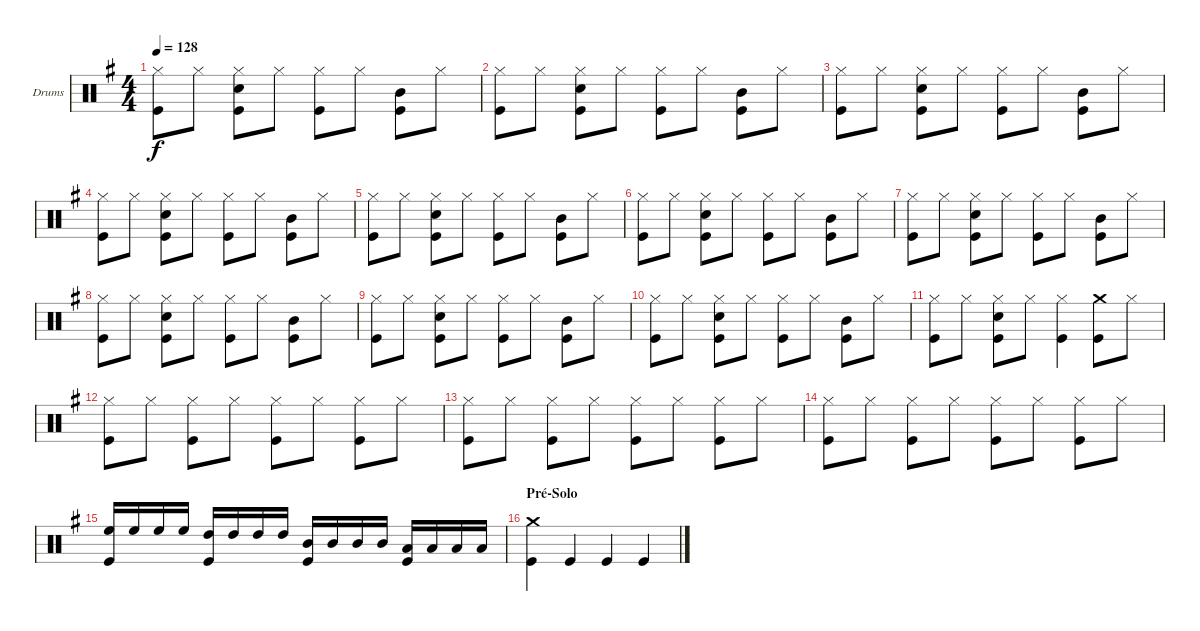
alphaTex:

\bracketExtendMode groupsimilarinstruments
\firstSystemTrackNameOrientation horizontal
\otherSystemsTrackNameOrientation horizontal
\track ("Drumkit" "Drums") {multiBarRest instrument percussion}
\staff {score}
\articulation defaults
\ts (4 4)
\tempo 128
\clef neutral
\ks eminor
("Hi-Hat (closed)" "Kick (hit)").8{dy f} "Hi-Hat (closed)".8 ("Hi-Hat (closed)" "Snare (hit) 2" "Kick (hit)").8 "Hi-Hat (closed)".8 ("Hi-Hat (closed)" "Kick (hit)").8 "Hi-Hat (closed)".8 ("Mid Tom (hit)" "Kick (hit)").8 "Hi-Hat (closed)".8 |
("Hi-Hat (closed)" "Kick (hit)").8 "Hi-Hat (closed)".8 ("Hi-Hat (closed)" "Snare (hit) 2" "Kick (hit)").8 "Hi-Hat (closed)".8 ("Hi-Hat (closed)" "Kick (hit)").8 "Hi-Hat (closed)".8 ("Mid Tom (hit)" "Kick (hit)").8 "Hi-Hat (closed)".8 |
("Hi-Hat (closed)" "Kick (hit)").8 "Hi-Hat (closed)".8 ("Hi-Hat (closed)" "Snare (hit) 2" "Kick (hit)").8 "Hi-Hat (closed)".8 ("Hi-Hat (closed)" "Kick (hit)").8 "Hi-Hat (closed)".8 ("Mid Tom (hit)" "Kick (hit)").8 "Hi-Hat (closed)".8 |
("Hi-Hat (closed)" "Kick (hit)").8 "Hi-Hat (closed)".8 ("Hi-Hat (closed)" "Snare (hit) 2" "Kick (hit)").8 "Hi-Hat (closed)".8 ("Hi-Hat (closed)" "Kick (hit)").8 "Hi-Hat (closed)".8 ("Mid Tom (hit)" "Kick (hit)").8 "Hi-Hat (closed)".8 |
("Hi-Hat (closed)" "Kick (hit)").8 "Hi-Hat (closed)".8 ("Hi-Hat (closed)" "Snare (hit) 2" "Kick (hit)").8 "Hi-Hat (closed)".8 ("Hi-Hat (closed)" "Kick (hit)").8 "Hi-Hat (closed)".8 ("Mid Tom (hit)" "Kick (hit)").8 "Hi-Hat (closed)".8 |
("Hi-Hat (closed)" "Kick (hit)").8 "Hi-Hat (closed)".8 ("Hi-Hat (closed)" "Snare (hit) 2" "Kick (hit)").8 "Hi-Hat (closed)".8 ("Hi-Hat (closed)" "Kick (hit)").8 "Hi-Hat (closed)".8 ("Mid Tom (hit)" "Kick (hit)").8 "Hi-Hat (closed)".8 |
("Hi-Hat (closed)" "Kick (hit)").8 "Hi-Hat (closed)".8 ("Hi-Hat (closed)" "Snare (hit) 2" "Kick (hit)").8 "Hi-Hat (closed)".8 ("Hi-Hat (closed)" "Kick (hit)").8 "Hi-Hat (closed)".8 ("Mid Tom (hit)" "Kick (hit)").8 "Hi-Hat (closed)".8 |
("Hi-Hat (closed)" "Kick (hit)").8 "Hi-Hat (closed)".8 ("Hi-Hat (closed)" "Snare (hit) 2" "Kick (hit)").8 "Hi-Hat (closed)".8 ("Hi-Hat (closed)" "Kick (hit)").8 "Hi-Hat (closed)".8 ("Mid Tom (hit)" "Kick (hit)").8 "Hi-Hat (closed)".8 |
("Hi-Hat (closed)" "Kick (hit)").8 "Hi-Hat (closed)".8 ("Hi-Hat (closed)" "Snare (hit) 2" "Kick (hit)").8 "Hi-Hat (closed)".8 ("Hi-Hat (closed)" "Kick (hit)").8 "Hi-Hat (closed)".8 ("Mid Tom (hit)" "Kick (hit)").8 "Hi-Hat (closed)".8 |
("Hi-Hat (closed)" "Kick (hit)").8 "Hi-Hat (closed)".8 ("Hi-Hat (closed)" "Snare (hit) 2" "Kick (hit)").8 "Hi-Hat (closed)".8 ("Hi-Hat (closed)" "Kick (hit)").8 "Hi-Hat (closed)".8 ("Mid Tom (hit)" "Kick (hit)").8 "Hi-Hat (closed)".8 |
("Hi-Hat (closed)" "Kick (hit)").8 "Hi-Hat (closed)".8 ("Hi-Hat (closed)" "Snare (hit) 2" "Kick (hit)").8 "Hi-Hat (closed)".8 ("Hi-Hat (closed)" "Kick (hit)").4 ("Crash medium (hit)" "Kick (hit)").8 "Hi-Hat (closed)".8 |
("Hi-Hat (closed)" "Kick (hit)").8 "Hi-Hat (closed)".8 ("Hi-Hat (closed)" "Kick (hit)").8 "Hi-Hat (closed)".8 ("Hi-Hat (closed)" "Kick (hit)").8 "Hi-Hat (closed)".8 ("Hi-Hat (closed)" "Kick (hit)").8 "Hi-Hat (closed)".8 |
("Hi-Hat (closed)" "Kick (hit)").8 "Hi-Hat (closed)".8 ("Hi-Hat (closed)" "Kick (hit)").8 "Hi-Hat (closed)".8 ("Hi-Hat (closed)" "Kick (hit)").8 "Hi-Hat (closed)".8 ("Hi-Hat (closed)" "Kick (hit)").8 "Hi-Hat (closed)".8 |
("Hi-Hat (closed)" "Kick (hit)").8 "Hi-Hat (closed)".8 ("Hi-Hat (closed)" "Kick (hit)").8 "Hi-Hat (closed)".8 ("Hi-Hat (closed)" "Kick (hit)").8 "Hi-Hat (closed)".8 ("Hi-Hat (closed)" "Kick (hit)").8 "Hi-Hat (closed)".8 |
("High Floor Tom (hit)" "Kick (hit)").16 "High Floor Tom (hit)".16 "High Floor Tom (hit)".16 "High Floor Tom (hit)".16 ("High Tom (hit)" "Kick (hit)").16 "High Tom (hit)".16 "High Tom (hit)".16 "High Tom (hit)".16 ("Mid Tom (hit)" "Kick (hit)").16 "Mid Tom (hit)".16 "Mid Tom (hit)".16 "Mid Tom (hit)".16 ("Low Tom (hit)" "Kick (hit)").16 "Low Tom (hit)".16 "Low Tom (hit)".16 "Low Tom (hit)".16 |
\section ("" "Pré-Solo")
("Crash medium (hit)" "Kick (hit)").4 "Kick (hit)".4 "Kick (hit)".4 "Kick (hit)".4
